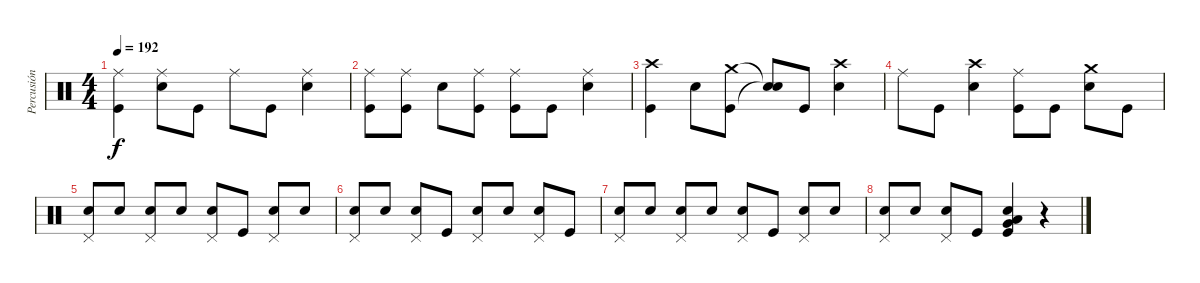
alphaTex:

\track ("Percusión" "Percusión") {instrument percussion}
\staff {score}
\articulation defaults
\ts (4 4)
\tempo 192
\clef neutral
\ks c
("Ride (middle)" "Kick (hit)").4{dy f} ("Ride (middle)" "Electric Snare (hit)").8 "Kick (hit)".8 "Ride (middle)".8 "Kick (hit)".8 ("Ride (middle)" "Electric Snare (hit)").4 |
("Ride (middle)" "Kick (hit)").8 ("Ride (middle)" "Kick (hit)").8 "Electric Snare (hit)".8 ("Ride (middle)" "Kick (hit)").8 ("Ride (middle)" "Kick (hit)").8 "Kick (hit)".8 ("Ride (middle)" "Electric Snare (hit)").4 |
("Crash high (hit)" "Kick (hit)").4 "Electric Snare (hit)".8 ("Crash medium (hit)" "Kick (hit)").8 ("Snare (hit)"{t} "Snare (hit)"{t}).8 "Kick (hit)".8 ("Crash high (hit)" "Electric Snare (hit)").4 |
"Ride (middle)".8 "Kick (hit)".8 ("Crash high (hit)" "Electric Snare (hit)").4 ("Ride (middle)" "Kick (hit)").8 "Kick (hit)".8 ("Crash medium (hit)" "Electric Snare (hit)").8 "Kick (hit)".8 |
("Electric Snare (hit)" "Pedal Hi-Hat (hit)").8 "Electric Snare (hit)".8 ("Electric Snare (hit)" "Pedal Hi-Hat (hit)").8 "Electric Snare (hit)".8 ("Electric Snare (hit)" "Pedal Hi-Hat (hit)").8 "Kick (hit)".8 ("Electric Snare (hit)" "Pedal Hi-Hat (hit)").8 "Electric Snare (hit)".8 |
("Electric Snare (hit)" "Pedal Hi-Hat (hit)").8 "Electric Snare (hit)".8 ("Electric Snare (hit)" "Pedal Hi-Hat (hit)").8 "Kick (hit)".8 ("Electric Snare (hit)" "Pedal Hi-Hat (hit)").8 "Electric Snare (hit)".8 ("Electric Snare (hit)" "Pedal Hi-Hat (hit)").8 "Kick (hit)".8 |
("Electric Snare (hit)" "Pedal Hi-Hat (hit)").8 "Electric Snare (hit)".8 ("Electric Snare (hit)" "Pedal Hi-Hat (hit)").8 "Electric Snare (hit)".8 ("Electric Snare (hit)" "Pedal Hi-Hat (hit)").8 "Kick (hit)".8 ("Electric Snare (hit)" "Pedal Hi-Hat (hit)").8 "Electric Snare (hit)".8 |
("Electric Snare (hit)" "Pedal Hi-Hat (hit)").8 "Electric Snare (hit)".8 ("Electric Snare (hit)" "Pedal Hi-Hat (hit)").8 "Kick (hit)".8 ("Electric Snare (hit)" "Very Low Tom (hit)" "Low Floor Tom (hit)" "Kick (hit)").4 r.4
